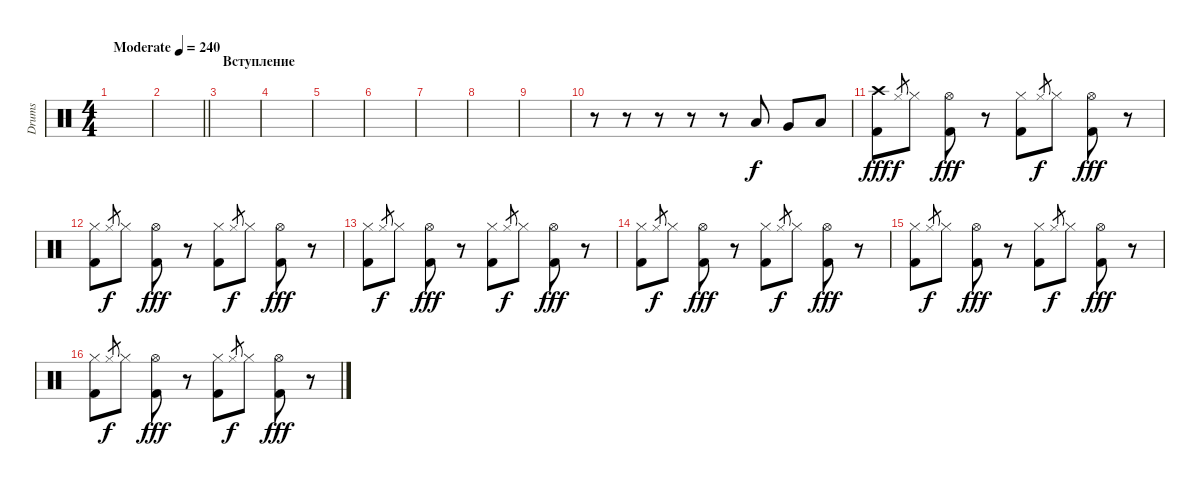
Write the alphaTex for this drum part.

\track ("Drums" "Drums") {instrument percussion}
\staff {score}
\articulation defaults
\ts (4 4)
\tempo (240 "Moderate")
\clef neutral
\ks c
|
\barLineRight lightlight
|
\section ("" "Вступление")
|
|
|
|
|
|
|
r.8 r.8 r.8 r.8 r.8 "Low Tom (hit)".8 "Very Low Tom (hit)".8 "Low Floor Tom (hit)".8 |
("Crash high (hit)" "Kick (hit) 2").8{dy fff} "Hi-Hat (closed)".8{gr dy f} "Hi-Hat (closed)".8 ("Hi-Hat (open)" "Kick (hit) 2").8{dy fff} r.8 ("Hi-Hat (closed)" "Kick (hit) 2").8 "Hi-Hat (closed)".8{gr dy f} "Hi-Hat (closed)".8 ("Hi-Hat (open)" "Kick (hit) 2").8{dy fff} r.8 |
("Hi-Hat (closed)" "Kick (hit) 2").8 "Hi-Hat (closed)".8{gr dy f} "Hi-Hat (closed)".8 ("Hi-Hat (open)" "Kick (hit) 2").8{dy fff} r.8 ("Hi-Hat (closed)" "Kick (hit) 2").8 "Hi-Hat (closed)".8{gr dy f} "Hi-Hat (closed)".8 ("Hi-Hat (open)" "Kick (hit) 2").8{dy fff} r.8 |
("Hi-Hat (closed)" "Kick (hit) 2").8 "Hi-Hat (closed)".8{gr dy f} "Hi-Hat (closed)".8 ("Hi-Hat (open)" "Kick (hit) 2").8{dy fff} r.8 ("Hi-Hat (closed)" "Kick (hit) 2").8 "Hi-Hat (closed)".8{gr dy f} "Hi-Hat (closed)".8 ("Hi-Hat (open)" "Kick (hit) 2").8{dy fff} r.8 |
("Hi-Hat (closed)" "Kick (hit) 2").8 "Hi-Hat (closed)".8{gr dy f} "Hi-Hat (closed)".8 ("Hi-Hat (open)" "Kick (hit) 2").8{dy fff} r.8 ("Hi-Hat (closed)" "Kick (hit) 2").8 "Hi-Hat (closed)".8{gr dy f} "Hi-Hat (closed)".8 ("Hi-Hat (open)" "Kick (hit) 2").8{dy fff} r.8 |
("Hi-Hat (closed)" "Kick (hit) 2").8 "Hi-Hat (closed)".8{gr dy f} "Hi-Hat (closed)".8 ("Hi-Hat (open)" "Kick (hit) 2").8{dy fff} r.8 ("Hi-Hat (closed)" "Kick (hit) 2").8 "Hi-Hat (closed)".8{gr dy f} "Hi-Hat (closed)".8 ("Hi-Hat (open)" "Kick (hit) 2").8{dy fff} r.8 |
("Hi-Hat (closed)" "Kick (hit) 2").8 "Hi-Hat (closed)".8{gr dy f} "Hi-Hat (closed)".8 ("Hi-Hat (open)" "Kick (hit) 2").8{dy fff} r.8 ("Hi-Hat (closed)" "Kick (hit) 2").8 "Hi-Hat (closed)".8{gr dy f} "Hi-Hat (closed)".8 ("Hi-Hat (open)" "Kick (hit) 2").8{dy fff} r.8
